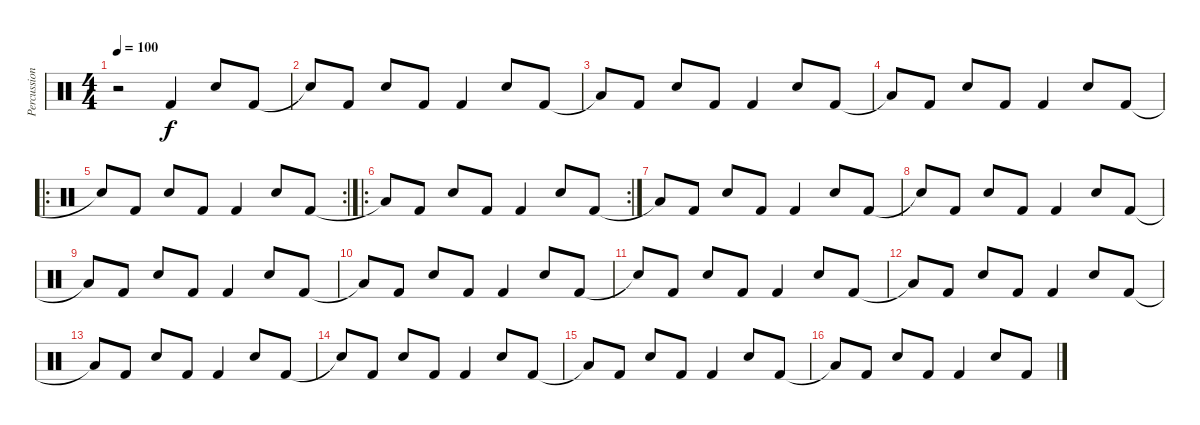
\track ("Percussions" "Percussion") {instrument percussion}
\staff {score}
\articulation defaults
\ts (4 4)
\tempo 100
\clef neutral
\ks c
r.2{dy f} "Kick (hit) 2".4 "Snare (hit) 2".8 "Kick (hit) 2".8 |
"Snare (hit)"{t}.8 "Kick (hit) 2".8 "Snare (hit) 2".8 "Kick (hit) 2".8 "Kick (hit) 2".4 "Snare (hit) 2".8 "Kick (hit) 2".8 |
"Low Tom (hit)"{t}.8 "Kick (hit) 2".8 "Snare (hit) 2".8 "Kick (hit) 2".8 "Kick (hit) 2".4 "Snare (hit) 2".8 "Kick (hit) 2".8 |
"Low Tom (hit)"{t}.8 "Kick (hit) 2".8 "Snare (hit) 2".8 "Kick (hit) 2".8 "Kick (hit) 2".4 "Snare (hit) 2".8 "Kick (hit) 2".8 |
\ro
\rc 2 "Snare (hit)"{t}.8 "Kick (hit) 2".8 "Snare (hit) 2".8 "Kick (hit) 2".8 "Kick (hit) 2".4 "Snare (hit) 2".8 "Kick (hit) 2".8
|
\ro
\rc 2 "Low Tom (hit)"{t}.8 "Kick (hit) 2".8 "Snare (hit) 2".8 "Kick (hit) 2".8 "Kick (hit) 2".4 "Snare (hit) 2".8 "Kick (hit) 2".8
|
"Low Tom (hit)"{t}.8 "Kick (hit) 2".8 "Snare (hit) 2".8 "Kick (hit) 2".8 "Kick (hit) 2".4 "Snare (hit) 2".8 "Kick (hit) 2".8 |
"Snare (hit)"{t}.8 "Kick (hit) 2".8 "Snare (hit) 2".8 "Kick (hit) 2".8 "Kick (hit) 2".4 "Snare (hit) 2".8 "Kick (hit) 2".8 |
"Low Tom (hit)"{t}.8 "Kick (hit) 2".8 "Snare (hit) 2".8 "Kick (hit) 2".8 "Kick (hit) 2".4 "Snare (hit) 2".8 "Kick (hit) 2".8 |
"Low Tom (hit)"{t}.8 "Kick (hit) 2".8 "Snare (hit) 2".8 "Kick (hit) 2".8 "Kick (hit) 2".4 "Snare (hit) 2".8 "Kick (hit) 2".8 |
"Snare (hit)"{t}.8 "Kick (hit) 2".8 "Snare (hit) 2".8 "Kick (hit) 2".8 "Kick (hit) 2".4 "Snare (hit) 2".8 "Kick (hit) 2".8 |
"Low Tom (hit)"{t}.8 "Kick (hit) 2".8 "Snare (hit) 2".8 "Kick (hit) 2".8 "Kick (hit) 2".4 "Snare (hit) 2".8 "Kick (hit) 2".8 |
"Low Tom (hit)"{t}.8 "Kick (hit) 2".8 "Snare (hit) 2".8 "Kick (hit) 2".8 "Kick (hit) 2".4 "Snare (hit) 2".8 "Kick (hit) 2".8 |
"Snare (hit)"{t}.8 "Kick (hit) 2".8 "Snare (hit) 2".8 "Kick (hit) 2".8 "Kick (hit) 2".4 "Snare (hit) 2".8 "Kick (hit) 2".8 |
"Low Tom (hit)"{t}.8 "Kick (hit) 2".8 "Snare (hit) 2".8 "Kick (hit) 2".8 "Kick (hit) 2".4 "Snare (hit) 2".8 "Kick (hit) 2".8 |
"Low Tom (hit)"{t}.8 "Kick (hit) 2".8 "Snare (hit) 2".8 "Kick (hit) 2".8 "Kick (hit) 2".4 "Snare (hit) 2".8 "Kick (hit) 2".8
